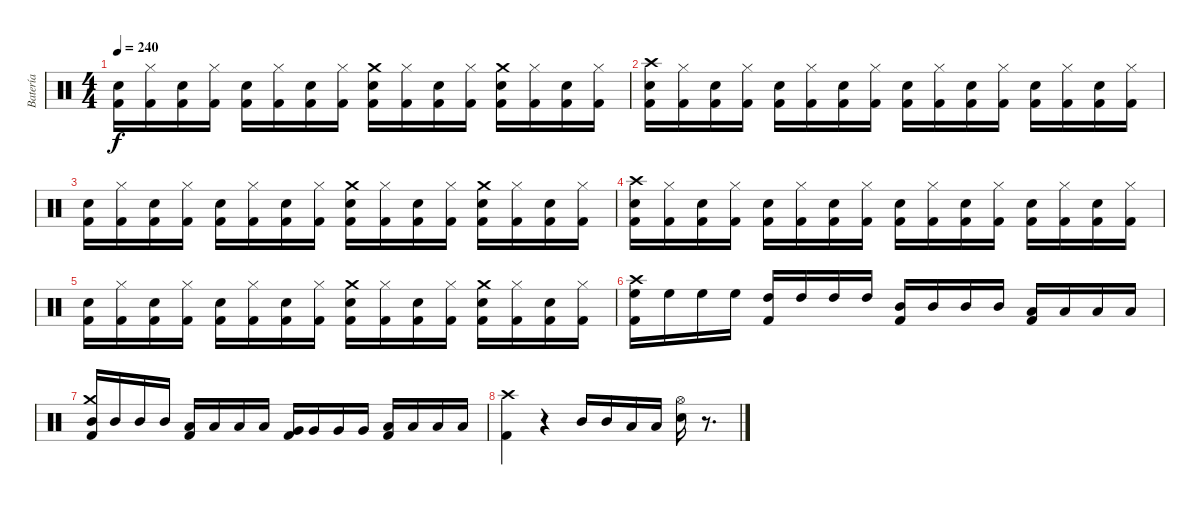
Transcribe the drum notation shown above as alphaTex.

\track ("Batería" "Batería") {instrument percussion}
\staff {score}
\articulation defaults
\ts (4 4)
\tempo 240
\clef neutral
\ks c
("Kick (hit) 2" "Electric Snare (hit)").16{dy f} ("Kick (hit) 2" "Hi-Hat (closed)").16 ("Kick (hit) 2" "Electric Snare (hit)").16 ("Kick (hit) 2" "Hi-Hat (closed)").16 ("Kick (hit) 2" "Electric Snare (hit)").16 ("Kick (hit) 2" "Hi-Hat (closed)").16 ("Kick (hit) 2" "Electric Snare (hit)").16 ("Kick (hit) 2" "Hi-Hat (closed)").16 ("Crash medium (hit)" "Kick (hit) 2" "Electric Snare (hit)").16 ("Kick (hit) 2" "Hi-Hat (closed)").16 ("Kick (hit) 2" "Electric Snare (hit)").16 ("Kick (hit) 2" "Hi-Hat (closed)").16 ("Crash medium (hit)" "Kick (hit) 2" "Electric Snare (hit)").16 ("Kick (hit) 2" "Hi-Hat (closed)").16 ("Kick (hit) 2" "Electric Snare (hit)").16 ("Kick (hit) 2" "Hi-Hat (closed)").16 |
("Crash high (hit)" "Kick (hit) 2" "Electric Snare (hit)").16 ("Kick (hit) 2" "Hi-Hat (closed)").16 ("Kick (hit) 2" "Electric Snare (hit)").16 ("Kick (hit) 2" "Hi-Hat (closed)").16 ("Kick (hit) 2" "Electric Snare (hit)").16 ("Kick (hit) 2" "Hi-Hat (closed)").16 ("Kick (hit) 2" "Electric Snare (hit)").16 ("Kick (hit) 2" "Hi-Hat (closed)").16 ("Kick (hit) 2" "Electric Snare (hit)").16 ("Kick (hit) 2" "Hi-Hat (closed)").16 ("Kick (hit) 2" "Electric Snare (hit)").16 ("Kick (hit) 2" "Hi-Hat (closed)").16 ("Kick (hit) 2" "Electric Snare (hit)").16 ("Kick (hit) 2" "Hi-Hat (closed)").16 ("Kick (hit) 2" "Electric Snare (hit)").16 ("Kick (hit) 2" "Hi-Hat (closed)").16 |
("Kick (hit) 2" "Electric Snare (hit)").16 ("Kick (hit) 2" "Hi-Hat (closed)").16 ("Kick (hit) 2" "Electric Snare (hit)").16 ("Kick (hit) 2" "Hi-Hat (closed)").16 ("Kick (hit) 2" "Electric Snare (hit)").16 ("Kick (hit) 2" "Hi-Hat (closed)").16 ("Kick (hit) 2" "Electric Snare (hit)").16 ("Kick (hit) 2" "Hi-Hat (closed)").16 ("Crash medium (hit)" "Kick (hit) 2" "Electric Snare (hit)").16 ("Kick (hit) 2" "Hi-Hat (closed)").16 ("Kick (hit) 2" "Electric Snare (hit)").16 ("Kick (hit) 2" "Hi-Hat (closed)").16 ("Crash medium (hit)" "Kick (hit) 2" "Electric Snare (hit)").16 ("Kick (hit) 2" "Hi-Hat (closed)").16 ("Kick (hit) 2" "Electric Snare (hit)").16 ("Kick (hit) 2" "Hi-Hat (closed)").16 |
("Crash high (hit)" "Kick (hit) 2" "Electric Snare (hit)").16 ("Kick (hit) 2" "Hi-Hat (closed)").16 ("Kick (hit) 2" "Electric Snare (hit)").16 ("Kick (hit) 2" "Hi-Hat (closed)").16 ("Kick (hit) 2" "Electric Snare (hit)").16 ("Kick (hit) 2" "Hi-Hat (closed)").16 ("Kick (hit) 2" "Electric Snare (hit)").16 ("Kick (hit) 2" "Hi-Hat (closed)").16 ("Kick (hit) 2" "Electric Snare (hit)").16 ("Kick (hit) 2" "Hi-Hat (closed)").16 ("Kick (hit) 2" "Electric Snare (hit)").16 ("Kick (hit) 2" "Hi-Hat (closed)").16 ("Kick (hit) 2" "Electric Snare (hit)").16 ("Kick (hit) 2" "Hi-Hat (closed)").16 ("Kick (hit) 2" "Electric Snare (hit)").16 ("Kick (hit) 2" "Hi-Hat (closed)").16 |
("Kick (hit) 2" "Electric Snare (hit)").16 ("Kick (hit) 2" "Hi-Hat (closed)").16 ("Kick (hit) 2" "Electric Snare (hit)").16 ("Kick (hit) 2" "Hi-Hat (closed)").16 ("Kick (hit) 2" "Electric Snare (hit)").16 ("Kick (hit) 2" "Hi-Hat (closed)").16 ("Kick (hit) 2" "Electric Snare (hit)").16 ("Kick (hit) 2" "Hi-Hat (closed)").16 ("Crash medium (hit)" "Kick (hit) 2" "Electric Snare (hit)").16 ("Kick (hit) 2" "Hi-Hat (closed)").16 ("Kick (hit) 2" "Electric Snare (hit)").16 ("Kick (hit) 2" "Hi-Hat (closed)").16 ("Crash medium (hit)" "Kick (hit) 2" "Electric Snare (hit)").16 ("Kick (hit) 2" "Hi-Hat (closed)").16 ("Kick (hit) 2" "Electric Snare (hit)").16 ("Kick (hit) 2" "Hi-Hat (closed)").16 |
("Crash high (hit)" "Kick (hit) 2" "High Floor Tom (hit)").16 "High Floor Tom (hit)".16 "High Floor Tom (hit)".16 "High Floor Tom (hit)".16 ("Kick (hit) 2" "High Tom (hit)").16 "High Tom (hit)".16 "High Tom (hit)".16 "High Tom (hit)".16 ("Kick (hit) 2" "Mid Tom (hit)").16 "Mid Tom (hit)".16 "Mid Tom (hit)".16 "Mid Tom (hit)".16 ("Kick (hit) 2" "Low Tom (hit)").16 "Low Tom (hit)".16 "Low Tom (hit)".16 "Low Tom (hit)".16 |
("Crash medium (hit)" "Kick (hit) 2" "Mid Tom (hit)").16 "Mid Tom (hit)".16 "Mid Tom (hit)".16 "Mid Tom (hit)".16 ("Kick (hit) 2" "Low Tom (hit)").16 "Low Tom (hit)".16 "Low Tom (hit)".16 "Low Tom (hit)".16 ("Kick (hit) 2" "Very Low Tom (hit)").16 "Very Low Tom (hit)".16 "Very Low Tom (hit)".16 "Very Low Tom (hit)".16 ("Kick (hit) 2" "Low Floor Tom (hit)").16 "Low Floor Tom (hit)".16 "Low Floor Tom (hit)".16 "Low Floor Tom (hit)".16 |
("Crash high (hit)" "Kick (hit) 2").4 r.4 "Mid Tom (hit)".16 "Mid Tom (hit)".16 "Low Tom (hit)".16 "Low Tom (hit)".16 ("Hi-Hat (open)" "Snare (hit) 2").16 r.8{d}
